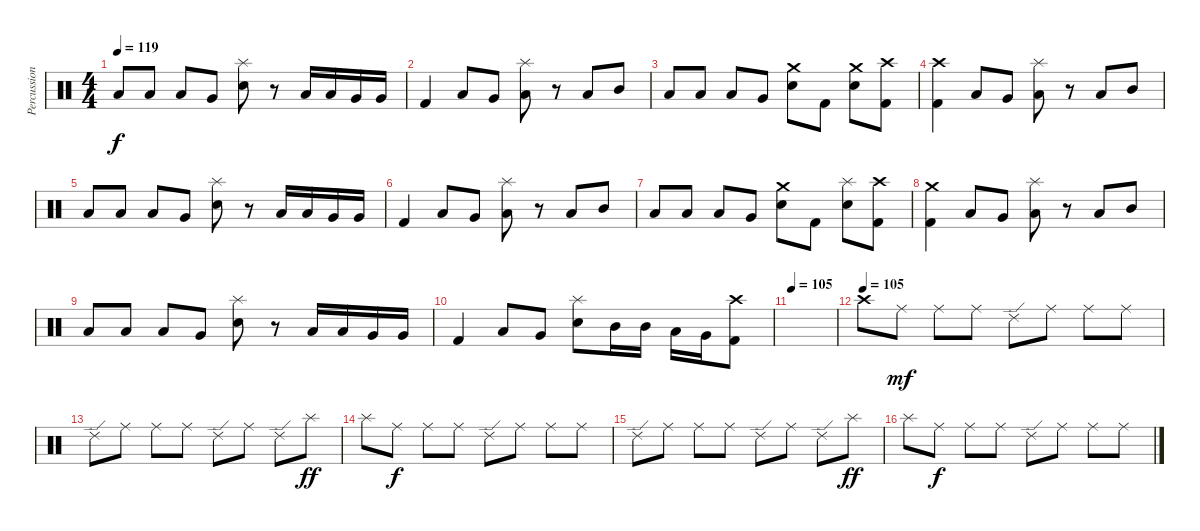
\track ("Percussion" "Percussion") {instrument percussion}
\staff {score}
\articulation defaults
\ts (4 4)
\tempo 119
\clef neutral
\ks c "Low Floor Tom (hit)".8{dy f} "Low Tom (hit)".8 "Low Floor Tom (hit)".8 "Very Low Tom (hit)".8
("Splash (hit)" "Snare (hit) 2").8 r.8 "Low Tom (hit)".16 "Low Tom (hit)".16 "Very Low Tom (hit)".16 "Very Low Tom (hit)".16 |
"Kick (hit) 2".4 "Low Tom (hit)".8 "Very Low Tom (hit)".8 ("Splash (hit)" "Low Floor Tom (hit)").8 r.8 "Low Floor Tom (hit)".8 "Mid Tom (hit)".8 |
"Low Floor Tom (hit)".8 "Low Tom (hit)".8 "Low Floor Tom (hit)".8 "Very Low Tom (hit)".8 ("Crash medium (hit)" "Snare (hit) 2").8 "Kick (hit) 2".8 ("Crash medium (hit)" "Snare (hit) 2").8 ("Crash high (hit)" "Kick (hit) 2").8 |
("Crash high (hit)" "Kick (hit) 2").4 "Low Tom (hit)".8 "Very Low Tom (hit)".8 ("Splash (hit)" "Low Floor Tom (hit)").8 r.8 "Low Floor Tom (hit)".8 "Mid Tom (hit)".8 |
"Low Floor Tom (hit)".8 "Low Tom (hit)".8 "Low Floor Tom (hit)".8 "Very Low Tom (hit)".8 ("Splash (hit)" "Snare (hit) 2").8 r.8 "Low Tom (hit)".16 "Low Tom (hit)".16 "Very Low Tom (hit)".16 "Very Low Tom (hit)".16 |
"Kick (hit) 2".4 "Low Tom (hit)".8 "Very Low Tom (hit)".8 ("Splash (hit)" "Low Floor Tom (hit)").8 r.8 "Low Floor Tom (hit)".8 "Mid Tom (hit)".8 |
"Low Floor Tom (hit)".8 "Low Tom (hit)".8 "Low Floor Tom (hit)".8 "Very Low Tom (hit)".8 ("Crash medium (hit)" "Snare (hit) 2").8 "Kick (hit) 2".8 ("Splash (hit)" "Snare (hit) 2").8 ("Crash high (hit)" "Kick (hit) 2").8 |
("Crash medium (hit)" "Kick (hit) 2").4 "Low Tom (hit)".8 "Very Low Tom (hit)".8 ("Splash (hit)" "Low Floor Tom (hit)").8 r.8 "Low Floor Tom (hit)".8 "Mid Tom (hit)".8 |
"Low Floor Tom (hit)".8 "Low Tom (hit)".8 "Low Floor Tom (hit)".8 "Very Low Tom (hit)".8 ("Splash (hit)" "Snare (hit) 2").8 r.8 "Low Tom (hit)".16 "Low Tom (hit)".16 "Very Low Tom (hit)".16 "Very Low Tom (hit)".16 |
"Kick (hit) 2".4 "Low Tom (hit)".8 "Very Low Tom (hit)".8 ("Splash (hit)" "Snare (hit) 2").8 "Mid Tom (hit)".16 "Mid Tom (hit)".16 "Low Tom (hit)".16 "Very Low Tom (hit)".16 ("Crash high (hit)" "Kick (hit) 2").8 |
\tempo 105
|
\tempo (105)
"Crash high (hit)".8 "Ride (middle)".8{dy mf} "Ride (middle)".8 "Ride (middle)".8 "Ride (edge) 2".8 "Ride (middle)".8 "Ride (middle)".8 "Ride (middle)".8 |
"Ride (edge) 2".8 "Ride (middle)".8 "Ride (middle)".8 "Ride (middle)".8 "Ride (edge) 2".8 "Ride (middle)".8 "Ride (edge) 2".8 "Splash (hit)".8{dy ff} |
"Splash (hit)".8 "Ride (middle)".8{dy f} "Ride (middle)".8 "Ride (middle)".8 "Ride (edge) 2".8 "Ride (middle)".8 "Ride (middle)".8 "Ride (middle)".8 |
"Ride (edge) 2".8 "Ride (middle)".8 "Ride (middle)".8 "Ride (middle)".8 "Ride (edge) 2".8 "Ride (middle)".8 "Ride (edge) 2".8 "Splash (hit)".8{dy ff} |
"Splash (hit)".8 "Ride (middle)".8{dy f} "Ride (middle)".8 "Ride (middle)".8 "Ride (edge) 2".8 "Ride (middle)".8 "Ride (middle)".8 "Ride (middle)".8
